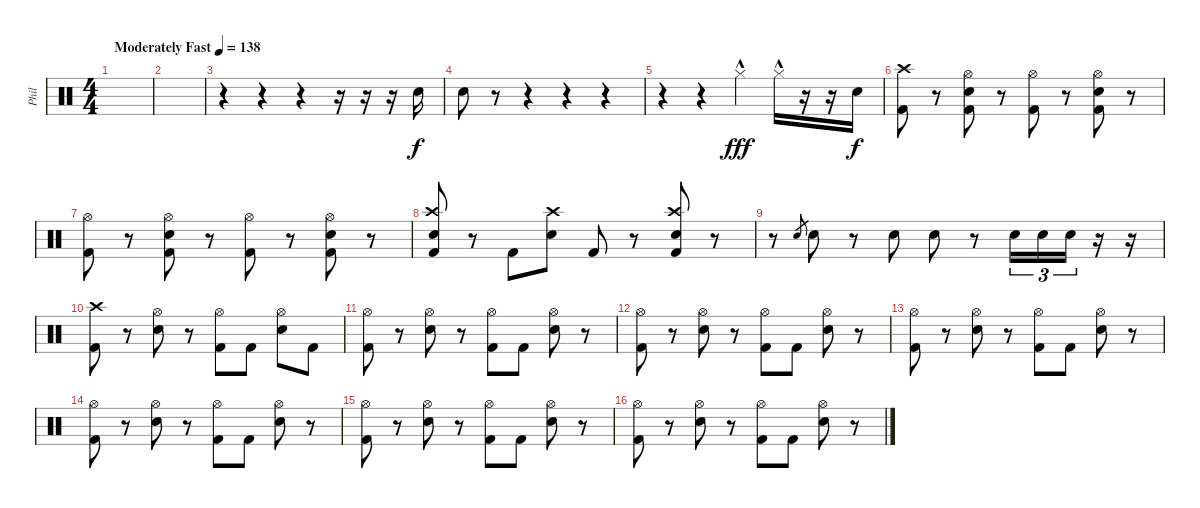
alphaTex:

\track ("Phil" "Phil") {instrument percussion}
\staff {score}
\articulation defaults
\ts (4 4)
\tempo (138 "Moderately Fast")
\clef neutral
\ks c
|
|
r.4 r.4 r.4 r.16 r.16 r.16 "Snare (hit) 2".16 |
"Snare (hit) 2".8 r.8 r.4 r.4 r.4 |
r.4 r.4 "Hi-Hat (closed)"{hac}.4{dy fff} "Hi-Hat (closed)"{hac}.16 r.16 r.16 "Snare (hit) 2".16{dy f} |
("Crash high (hit)" "Kick (hit) 2").8 r.8 ("Hi-Hat (open)" "Snare (hit) 2" "Kick (hit) 2").8 r.8 ("Hi-Hat (open)" "Kick (hit) 2").8 r.8 ("Hi-Hat (open)" "Snare (hit) 2" "Kick (hit) 2").8 r.8 |
("Hi-Hat (open)" "Kick (hit) 2").8 r.8 ("Hi-Hat (open)" "Snare (hit) 2" "Kick (hit) 2").8 r.8 ("Hi-Hat (open)" "Kick (hit) 2").8 r.8 ("Hi-Hat (open)" "Snare (hit) 2" "Kick (hit) 2").8 r.8 |
("Crash high (hit)" "Snare (hit) 2" "Kick (hit) 2").8 r.8 "Kick (hit) 2".8 ("Crash high (hit)" "Snare (hit) 2").8 "Kick (hit) 2".8 r.8 ("Crash high (hit)" "Snare (hit) 2" "Kick (hit) 2").8 r.8 |
r.8 "Snare (hit) 2".8{gr} "Snare (hit) 2".8 r.8 "Snare (hit) 2".8 "Snare (hit) 2".8 r.8 "Snare (hit) 2".16{tu (3 2)} "Snare (hit) 2".16{tu (3 2)} "Snare (hit) 2".16{tu (3 2)} r.16 r.16 |
("Crash high (hit)" "Kick (hit) 2").8 r.8 ("Hi-Hat (open)" "Snare (hit) 2").8 r.8 ("Hi-Hat (open)" "Kick (hit) 2").8 "Kick (hit) 2".8 ("Hi-Hat (open)" "Snare (hit) 2").8 "Kick (hit) 2".8 |
("Hi-Hat (open)" "Kick (hit) 2").8 r.8 ("Hi-Hat (open)" "Snare (hit) 2").8 r.8 ("Hi-Hat (open)" "Kick (hit) 2").8 "Kick (hit) 2".8 ("Hi-Hat (open)" "Snare (hit) 2").8 r.8 |
("Hi-Hat (open)" "Kick (hit) 2").8 r.8 ("Hi-Hat (open)" "Snare (hit) 2").8 r.8 ("Hi-Hat (open)" "Kick (hit) 2").8 "Kick (hit) 2".8 ("Hi-Hat (open)" "Snare (hit) 2").8 r.8 |
("Hi-Hat (open)" "Kick (hit) 2").8 r.8 ("Hi-Hat (open)" "Snare (hit) 2").8 r.8 ("Hi-Hat (open)" "Kick (hit) 2").8 "Kick (hit) 2".8 ("Hi-Hat (open)" "Snare (hit) 2").8 r.8 |
("Hi-Hat (open)" "Kick (hit) 2").8 r.8 ("Hi-Hat (open)" "Snare (hit) 2").8 r.8 ("Hi-Hat (open)" "Kick (hit) 2").8 "Kick (hit) 2".8 ("Hi-Hat (open)" "Snare (hit) 2").8 r.8 |
("Hi-Hat (open)" "Kick (hit) 2").8 r.8 ("Hi-Hat (open)" "Snare (hit) 2").8 r.8 ("Hi-Hat (open)" "Kick (hit) 2").8 "Kick (hit) 2".8 ("Hi-Hat (open)" "Snare (hit) 2").8 r.8 |
("Hi-Hat (open)" "Kick (hit) 2").8 r.8 ("Hi-Hat (open)" "Snare (hit) 2").8 r.8 ("Hi-Hat (open)" "Kick (hit) 2").8 "Kick (hit) 2".8 ("Hi-Hat (open)" "Snare (hit) 2").8 r.8
